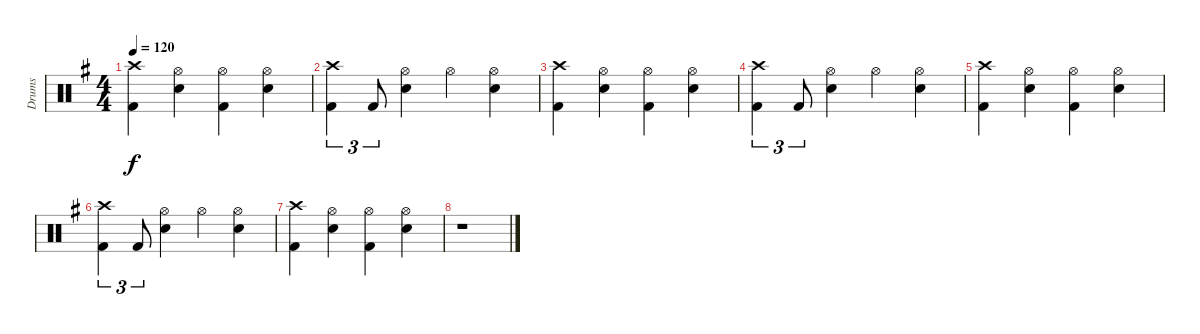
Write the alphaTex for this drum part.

\track ("Drums" "Drums") {instrument percussion}
\staff {score}
\articulation defaults
\ts (4 4)
\tempo 120
\clef neutral
\ks g
("Crash high (hit)" "Kick (hit) 2").4{dy f} ("Hi-Hat (open)" "Snare (hit) 2").4 ("Hi-Hat (open)" "Kick (hit) 2").4 ("Hi-Hat (open)" "Snare (hit) 2").4 |
("Crash high (hit)" "Kick (hit) 2").4{tu (3 2)} "Kick (hit) 2".8{tu (3 2)} ("Hi-Hat (open)" "Snare (hit) 2").4 "Hi-Hat (open)".4 ("Hi-Hat (open)" "Snare (hit) 2").4 |
("Crash high (hit)" "Kick (hit) 2").4 ("Hi-Hat (open)" "Snare (hit) 2").4 ("Hi-Hat (open)" "Kick (hit) 2").4 ("Hi-Hat (open)" "Snare (hit) 2").4 |
("Crash high (hit)" "Kick (hit) 2").4{tu (3 2)} "Kick (hit) 2".8{tu (3 2)} ("Hi-Hat (open)" "Snare (hit) 2").4 "Hi-Hat (open)".4 ("Hi-Hat (open)" "Snare (hit) 2").4 |
("Crash high (hit)" "Kick (hit) 2").4 ("Hi-Hat (open)" "Snare (hit) 2").4 ("Hi-Hat (open)" "Kick (hit) 2").4 ("Hi-Hat (open)" "Snare (hit) 2").4 |
("Crash high (hit)" "Kick (hit) 2").4{tu (3 2)} "Kick (hit) 2".8{tu (3 2)} ("Hi-Hat (open)" "Snare (hit) 2").4 "Hi-Hat (open)".4 ("Hi-Hat (open)" "Snare (hit) 2").4 |
("Crash high (hit)" "Kick (hit) 2").4 ("Hi-Hat (open)" "Snare (hit) 2").4 ("Hi-Hat (open)" "Kick (hit) 2").4 ("Hi-Hat (open)" "Snare (hit) 2").4 |
r.1
